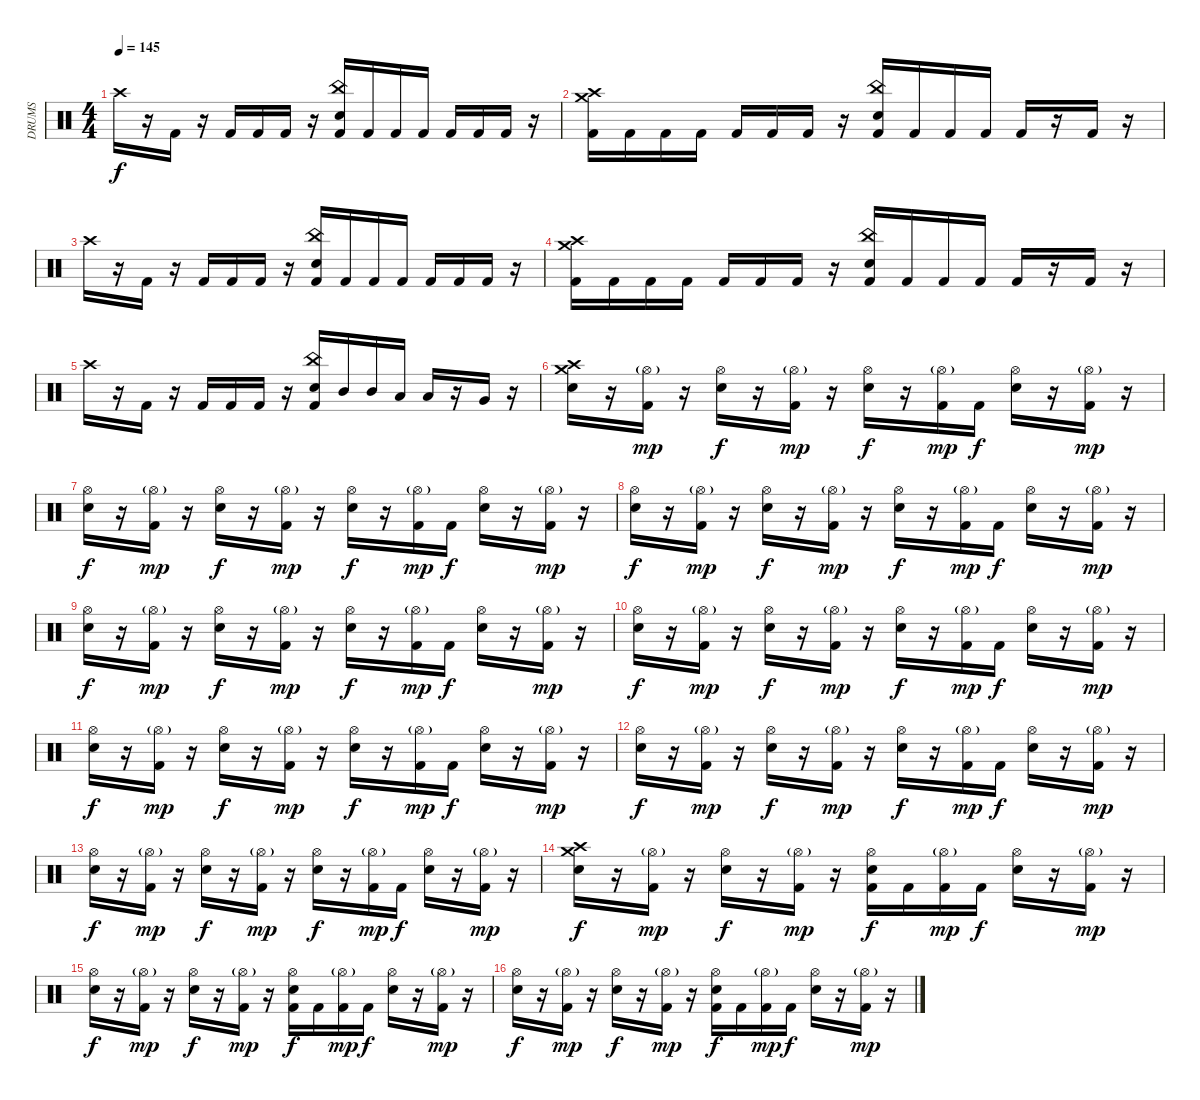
\track ("DRUMS" "DRUMS") {instrument percussion}
\staff {score}
\articulation defaults
\ts (4 4)
\tempo 145
\clef neutral
\ks c "Crash high (hit)".16{dy f}
r.16 "Kick (hit) 2".16 r.16 "Kick (hit) 2".16 "Kick (hit) 2".16 "Kick (hit) 2".16 r.16 ("China (hit)" "Electric Snare (hit)" "Kick (hit) 2").16 "Kick (hit) 2".16 "Kick (hit) 2".16 "Kick (hit) 2".16 "Kick (hit) 2".16 "Kick (hit) 2".16 "Kick (hit) 2".16 r.16 |
("Crash medium (hit)" "Crash high (hit)" "Kick (hit) 2").16 "Kick (hit) 2".16 "Kick (hit) 2".16 "Kick (hit) 2".16 "Kick (hit) 2".16 "Kick (hit) 2".16 "Kick (hit) 2".16 r.16 ("China (hit)" "Electric Snare (hit)" "Kick (hit) 2").16 "Kick (hit) 2".16 "Kick (hit) 2".16 "Kick (hit) 2".16 "Kick (hit) 2".16 r.16 "Kick (hit) 2".16 r.16 |
"Crash high (hit)".16 r.16 "Kick (hit) 2".16 r.16 "Kick (hit) 2".16 "Kick (hit) 2".16 "Kick (hit) 2".16 r.16 ("China (hit)" "Electric Snare (hit)" "Kick (hit) 2").16 "Kick (hit) 2".16 "Kick (hit) 2".16 "Kick (hit) 2".16 "Kick (hit) 2".16 "Kick (hit) 2".16 "Kick (hit) 2".16 r.16 |
("Crash medium (hit)" "Crash high (hit)" "Kick (hit) 2").16 "Kick (hit) 2".16 "Kick (hit) 2".16 "Kick (hit) 2".16 "Kick (hit) 2".16 "Kick (hit) 2".16 "Kick (hit) 2".16 r.16 ("China (hit)" "Electric Snare (hit)" "Kick (hit) 2").16 "Kick (hit) 2".16 "Kick (hit) 2".16 "Kick (hit) 2".16 "Kick (hit) 2".16 r.16 "Kick (hit) 2".16 r.16 |
"Crash high (hit)".16 r.16 "Kick (hit) 2".16 r.16 "Kick (hit) 2".16 "Kick (hit) 2".16 "Kick (hit) 2".16 r.16 ("China (hit)" "Electric Snare (hit)" "Kick (hit) 2").16 "Mid Tom (hit)".16 "Mid Tom (hit)".16 "Low Tom (hit)".16 "Low Tom (hit)".16 r.16 "Very Low Tom (hit)".16 r.16 |
("Crash high (hit)" "Crash medium (hit)" "Electric Snare (hit)").16 r.16 ("Hi-Hat (open)"{g} "Kick (hit) 2").16{dy mp} r.16 ("Hi-Hat (open)" "Electric Snare (hit)").16{dy f} r.16 ("Hi-Hat (open)"{g} "Kick (hit) 2").16{dy mp} r.16 ("Hi-Hat (open)" "Electric Snare (hit)").16{dy f} r.16 ("Hi-Hat (open)"{g} "Kick (hit) 2").16{dy mp} "Kick (hit) 2".16{dy f} ("Hi-Hat (open)" "Electric Snare (hit)").16 r.16 ("Hi-Hat (open)"{g} "Kick (hit) 2").16{dy mp} r.16 |
("Hi-Hat (open)" "Electric Snare (hit)").16{dy f} r.16 ("Hi-Hat (open)"{g} "Kick (hit) 2").16{dy mp} r.16 ("Hi-Hat (open)" "Electric Snare (hit)").16{dy f} r.16 ("Hi-Hat (open)"{g} "Kick (hit) 2").16{dy mp} r.16 ("Hi-Hat (open)" "Electric Snare (hit)").16{dy f} r.16 ("Hi-Hat (open)"{g} "Kick (hit) 2").16{dy mp} "Kick (hit) 2".16{dy f} ("Hi-Hat (open)" "Electric Snare (hit)").16 r.16 ("Hi-Hat (open)"{g} "Kick (hit) 2").16{dy mp} r.16 |
("Hi-Hat (open)" "Electric Snare (hit)").16{dy f} r.16 ("Hi-Hat (open)"{g} "Kick (hit) 2").16{dy mp} r.16 ("Hi-Hat (open)" "Electric Snare (hit)").16{dy f} r.16 ("Hi-Hat (open)"{g} "Kick (hit) 2").16{dy mp} r.16 ("Hi-Hat (open)" "Electric Snare (hit)").16{dy f} r.16 ("Hi-Hat (open)"{g} "Kick (hit) 2").16{dy mp} "Kick (hit) 2".16{dy f} ("Hi-Hat (open)" "Electric Snare (hit)").16 r.16 ("Hi-Hat (open)"{g} "Kick (hit) 2").16{dy mp} r.16 |
("Hi-Hat (open)" "Electric Snare (hit)").16{dy f} r.16 ("Hi-Hat (open)"{g} "Kick (hit) 2").16{dy mp} r.16 ("Hi-Hat (open)" "Electric Snare (hit)").16{dy f} r.16 ("Hi-Hat (open)"{g} "Kick (hit) 2").16{dy mp} r.16 ("Hi-Hat (open)" "Electric Snare (hit)").16{dy f} r.16 ("Hi-Hat (open)"{g} "Kick (hit) 2").16{dy mp} "Kick (hit) 2".16{dy f} ("Hi-Hat (open)" "Electric Snare (hit)").16 r.16 ("Hi-Hat (open)"{g} "Kick (hit) 2").16{dy mp} r.16 |
("Hi-Hat (open)" "Electric Snare (hit)").16{dy f} r.16 ("Hi-Hat (open)"{g} "Kick (hit) 2").16{dy mp} r.16 ("Hi-Hat (open)" "Electric Snare (hit)").16{dy f} r.16 ("Hi-Hat (open)"{g} "Kick (hit) 2").16{dy mp} r.16 ("Hi-Hat (open)" "Electric Snare (hit)").16{dy f} r.16 ("Hi-Hat (open)"{g} "Kick (hit) 2").16{dy mp} "Kick (hit) 2".16{dy f} ("Hi-Hat (open)" "Electric Snare (hit)").16 r.16 ("Hi-Hat (open)"{g} "Kick (hit) 2").16{dy mp} r.16 |
("Hi-Hat (open)" "Electric Snare (hit)").16{dy f} r.16 ("Hi-Hat (open)"{g} "Kick (hit) 2").16{dy mp} r.16 ("Hi-Hat (open)" "Electric Snare (hit)").16{dy f} r.16 ("Hi-Hat (open)"{g} "Kick (hit) 2").16{dy mp} r.16 ("Hi-Hat (open)" "Electric Snare (hit)").16{dy f} r.16 ("Hi-Hat (open)"{g} "Kick (hit) 2").16{dy mp} "Kick (hit) 2".16{dy f} ("Hi-Hat (open)" "Electric Snare (hit)").16 r.16 ("Hi-Hat (open)"{g} "Kick (hit) 2").16{dy mp} r.16 |
("Hi-Hat (open)" "Electric Snare (hit)").16{dy f} r.16 ("Hi-Hat (open)"{g} "Kick (hit) 2").16{dy mp} r.16 ("Hi-Hat (open)" "Electric Snare (hit)").16{dy f} r.16 ("Hi-Hat (open)"{g} "Kick (hit) 2").16{dy mp} r.16 ("Hi-Hat (open)" "Electric Snare (hit)").16{dy f} r.16 ("Hi-Hat (open)"{g} "Kick (hit) 2").16{dy mp} "Kick (hit) 2".16{dy f} ("Hi-Hat (open)" "Electric Snare (hit)").16 r.16 ("Hi-Hat (open)"{g} "Kick (hit) 2").16{dy mp} r.16 |
("Hi-Hat (open)" "Electric Snare (hit)").16{dy f} r.16 ("Hi-Hat (open)"{g} "Kick (hit) 2").16{dy mp} r.16 ("Hi-Hat (open)" "Electric Snare (hit)").16{dy f} r.16 ("Hi-Hat (open)"{g} "Kick (hit) 2").16{dy mp} r.16 ("Hi-Hat (open)" "Electric Snare (hit)").16{dy f} r.16 ("Hi-Hat (open)"{g} "Kick (hit) 2").16{dy mp} "Kick (hit) 2".16{dy f} ("Hi-Hat (open)" "Electric Snare (hit)").16 r.16 ("Hi-Hat (open)"{g} "Kick (hit) 2").16{dy mp} r.16 |
("Crash high (hit)" "Crash medium (hit)" "Electric Snare (hit)").16{dy f} r.16 ("Hi-Hat (open)"{g} "Kick (hit) 2").16{dy mp} r.16 ("Hi-Hat (open)" "Electric Snare (hit)").16{dy f} r.16 ("Hi-Hat (open)"{g} "Kick (hit) 2").16{dy mp} r.16 ("Hi-Hat (open)" "Electric Snare (hit)" "Kick (hit) 2").16{dy f} "Kick (hit) 2".16 ("Hi-Hat (open)"{g} "Kick (hit) 2").16{dy mp} "Kick (hit) 2".16{dy f} ("Hi-Hat (open)" "Electric Snare (hit)").16 r.16 ("Hi-Hat (open)"{g} "Kick (hit) 2").16{dy mp} r.16 |
("Hi-Hat (open)" "Electric Snare (hit)").16{dy f} r.16 ("Hi-Hat (open)"{g} "Kick (hit) 2").16{dy mp} r.16 ("Hi-Hat (open)" "Electric Snare (hit)").16{dy f} r.16 ("Hi-Hat (open)"{g} "Kick (hit) 2").16{dy mp} r.16 ("Hi-Hat (open)" "Electric Snare (hit)" "Kick (hit) 2").16{dy f} "Kick (hit) 2".16 ("Hi-Hat (open)"{g} "Kick (hit) 2").16{dy mp} "Kick (hit) 2".16{dy f} ("Hi-Hat (open)" "Electric Snare (hit)").16 r.16 ("Hi-Hat (open)"{g} "Kick (hit) 2").16{dy mp} r.16 |
("Hi-Hat (open)" "Electric Snare (hit)").16{dy f} r.16 ("Hi-Hat (open)"{g} "Kick (hit) 2").16{dy mp} r.16 ("Hi-Hat (open)" "Electric Snare (hit)").16{dy f} r.16 ("Hi-Hat (open)"{g} "Kick (hit) 2").16{dy mp} r.16 ("Hi-Hat (open)" "Electric Snare (hit)" "Kick (hit) 2").16{dy f} "Kick (hit) 2".16 ("Hi-Hat (open)"{g} "Kick (hit) 2").16{dy mp} "Kick (hit) 2".16{dy f} ("Hi-Hat (open)" "Electric Snare (hit)").16 r.16 ("Hi-Hat (open)"{g} "Kick (hit) 2").16{dy mp} r.16
